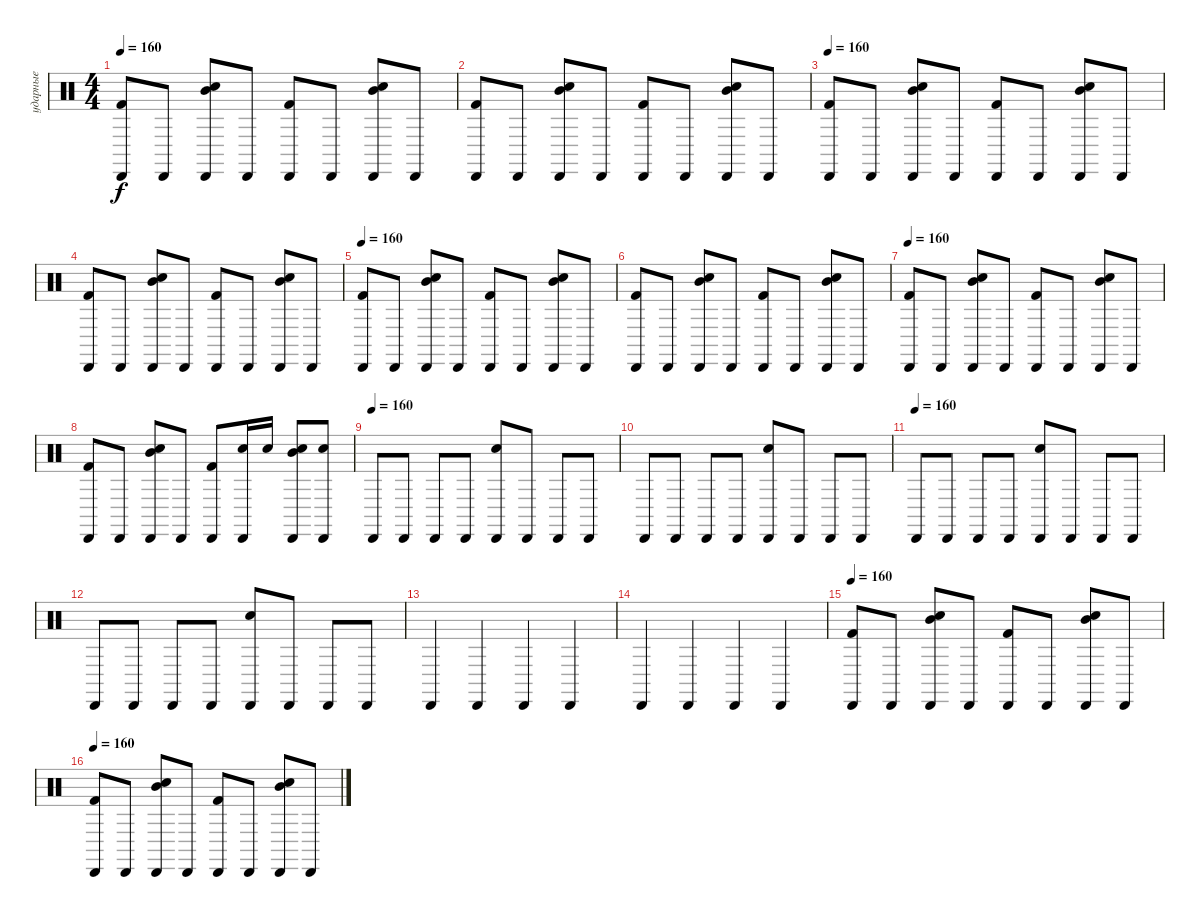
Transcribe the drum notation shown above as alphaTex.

\track ("ударные" "ударные") {instrument percussion}
\staff {score}
\articulation defaults
\ts (4 4)
\tempo 160
\clef neutral
\ks c
("Kick (hit) 2" "Cabasa (hit)").8{dy f} "Cabasa (hit)".8 ("Electric Snare (hit)" "Mid Tom (hit)" "Cabasa (hit)").8 "Cabasa (hit)".8 ("Cabasa (hit)" "Kick (hit) 2").8 "Cabasa (hit)".8 ("Cabasa (hit)" "Electric Snare (hit)" "Mid Tom (hit)").8 "Cabasa (hit)".8 |
("Cabasa (hit)" "Kick (hit) 2").8 "Cabasa (hit)".8 ("Electric Snare (hit)" "Cabasa (hit)" "Mid Tom (hit)").8 "Cabasa (hit)".8 ("Cabasa (hit)" "Kick (hit) 2").8 "Cabasa (hit)".8 ("Mid Tom (hit)" "Electric Snare (hit)" "Cabasa (hit)").8 "Cabasa (hit)".8 |
\tempo 160
("Kick (hit) 2" "Cabasa (hit)").8 "Cabasa (hit)".8 ("Electric Snare (hit)" "Mid Tom (hit)" "Cabasa (hit)").8 "Cabasa (hit)".8 ("Cabasa (hit)" "Kick (hit) 2").8 "Cabasa (hit)".8 ("Cabasa (hit)" "Electric Snare (hit)" "Mid Tom (hit)").8 "Cabasa (hit)".8 |
("Cabasa (hit)" "Kick (hit) 2").8 "Cabasa (hit)".8 ("Electric Snare (hit)" "Cabasa (hit)" "Mid Tom (hit)").8 "Cabasa (hit)".8 ("Cabasa (hit)" "Kick (hit) 2").8 "Cabasa (hit)".8 ("Mid Tom (hit)" "Electric Snare (hit)" "Cabasa (hit)").8 "Cabasa (hit)".8 |
\tempo 160
("Kick (hit) 2" "Cabasa (hit)").8 "Cabasa (hit)".8 ("Electric Snare (hit)" "Mid Tom (hit)" "Cabasa (hit)").8 "Cabasa (hit)".8 ("Cabasa (hit)" "Kick (hit) 2").8 "Cabasa (hit)".8 ("Cabasa (hit)" "Electric Snare (hit)" "Mid Tom (hit)").8 "Cabasa (hit)".8 |
("Cabasa (hit)" "Kick (hit) 2").8 "Cabasa (hit)".8 ("Electric Snare (hit)" "Cabasa (hit)" "Mid Tom (hit)").8 "Cabasa (hit)".8 ("Cabasa (hit)" "Kick (hit) 2").8 "Cabasa (hit)".8 ("Mid Tom (hit)" "Electric Snare (hit)" "Cabasa (hit)").8 "Cabasa (hit)".8 |
\tempo 160
("Kick (hit) 2" "Cabasa (hit)").8 "Cabasa (hit)".8 ("Electric Snare (hit)" "Mid Tom (hit)" "Cabasa (hit)").8 "Cabasa (hit)".8 ("Cabasa (hit)" "Kick (hit) 2").8 "Cabasa (hit)".8 ("Cabasa (hit)" "Electric Snare (hit)" "Mid Tom (hit)").8 "Cabasa (hit)".8 |
("Cabasa (hit)" "Kick (hit) 2").8 "Cabasa (hit)".8 ("Electric Snare (hit)" "Cabasa (hit)" "Mid Tom (hit)").8 "Cabasa (hit)".8 ("Cabasa (hit)" "Kick (hit) 2").8 ("Electric Snare (hit)" "Cabasa (hit)").16 "Electric Snare (hit)".16 ("Electric Snare (hit)" "Mid Tom (hit)" "Cabasa (hit)").8 ("Electric Snare (hit)" "Cabasa (hit)").8 |
\tempo (160)
"Cabasa (hit)".8 "Cabasa (hit)".8 "Cabasa (hit)".8 "Cabasa (hit)".8 ("Electric Snare (hit)" "Cabasa (hit)").8 "Cabasa (hit)".8 "Cabasa (hit)".8 "Cabasa (hit)".8 |
"Cabasa (hit)".8 "Cabasa (hit)".8 "Cabasa (hit)".8 "Cabasa (hit)".8 ("Electric Snare (hit)" "Cabasa (hit)").8 "Cabasa (hit)".8 "Cabasa (hit)".8 "Cabasa (hit)".8 |
\tempo (160)
"Cabasa (hit)".8 "Cabasa (hit)".8 "Cabasa (hit)".8 "Cabasa (hit)".8 ("Electric Snare (hit)" "Cabasa (hit)").8 "Cabasa (hit)".8 "Cabasa (hit)".8 "Cabasa (hit)".8 |
"Cabasa (hit)".8 "Cabasa (hit)".8 "Cabasa (hit)".8 "Cabasa (hit)".8 ("Electric Snare (hit)" "Cabasa (hit)").8 "Cabasa (hit)".8 "Cabasa (hit)".8 "Cabasa (hit)".8 |
"Cabasa (hit)".4 "Cabasa (hit)".4 "Cabasa (hit)".4 "Cabasa (hit)".4 |
"Cabasa (hit)".4 "Cabasa (hit)".4 "Cabasa (hit)".4 "Cabasa (hit)".4 |
\tempo 160
("Cabasa (hit)" "Kick (hit) 2").8 "Cabasa (hit)".8 ("Electric Snare (hit)" "Cabasa (hit)" "Mid Tom (hit)").8 "Cabasa (hit)".8 ("Cabasa (hit)" "Kick (hit) 2").8 "Cabasa (hit)".8 ("Mid Tom (hit)" "Electric Snare (hit)" "Cabasa (hit)").8 "Cabasa (hit)".8 |
\tempo 160
("Kick (hit) 2" "Cabasa (hit)").8 "Cabasa (hit)".8 ("Electric Snare (hit)" "Mid Tom (hit)" "Cabasa (hit)").8 "Cabasa (hit)".8 ("Cabasa (hit)" "Kick (hit) 2").8 "Cabasa (hit)".8 ("Cabasa (hit)" "Electric Snare (hit)" "Mid Tom (hit)").8 "Cabasa (hit)".8
